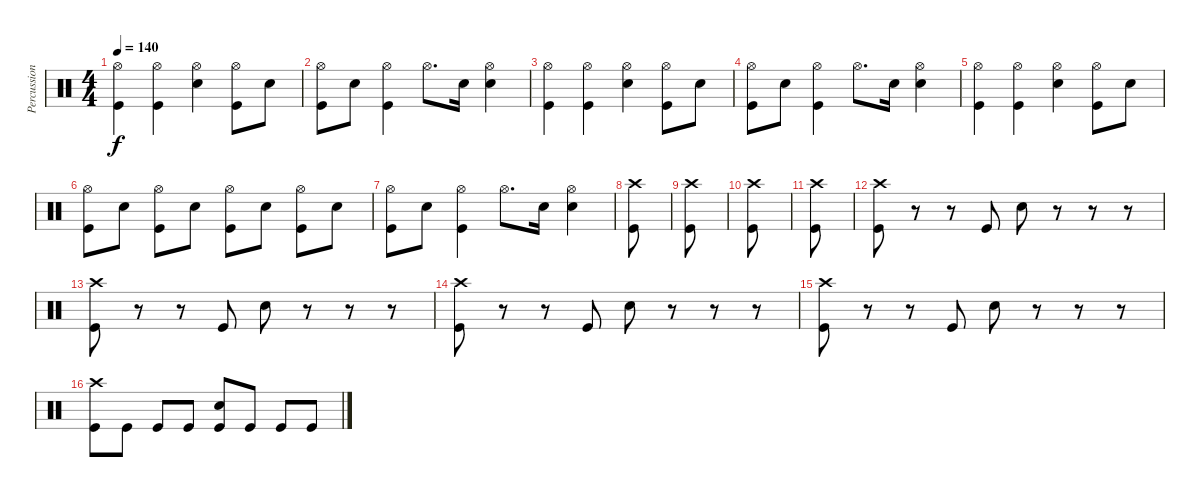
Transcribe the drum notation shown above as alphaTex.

\track ("Percussion" "Percussion") {instrument percussion}
\staff {score}
\articulation defaults
\ts (4 4)
\tempo 140
\clef neutral
\ks c
("Hi-Hat (open)" "Kick (hit)").4{dy f} ("Hi-Hat (open)" "Kick (hit)").4 ("Hi-Hat (open)" "Snare (hit) 2").4 ("Hi-Hat (open)" "Kick (hit)").8 "Snare (hit) 2".8 |
("Hi-Hat (open)" "Kick (hit)").8 "Snare (hit) 2".8 ("Hi-Hat (open)" "Kick (hit)").4 "Hi-Hat (open)".8{d} "Snare (hit) 2".16 ("Hi-Hat (open)" "Snare (hit) 2").4 |
("Hi-Hat (open)" "Kick (hit)").4 ("Hi-Hat (open)" "Kick (hit)").4 ("Hi-Hat (open)" "Snare (hit) 2").4 ("Hi-Hat (open)" "Kick (hit)").8 "Snare (hit) 2".8 |
("Hi-Hat (open)" "Kick (hit)").8 "Snare (hit) 2".8 ("Hi-Hat (open)" "Kick (hit)").4 "Hi-Hat (open)".8{d} "Snare (hit) 2".16 ("Hi-Hat (open)" "Snare (hit) 2").4 |
("Hi-Hat (open)" "Kick (hit)").4 ("Hi-Hat (open)" "Kick (hit)").4 ("Hi-Hat (open)" "Snare (hit) 2").4 ("Hi-Hat (open)" "Kick (hit)").8 "Snare (hit) 2".8 |
("Hi-Hat (open)" "Kick (hit)").8 "Snare (hit) 2".8 ("Hi-Hat (open)" "Kick (hit)").8 "Snare (hit) 2".8 ("Hi-Hat (open)" "Kick (hit)").8 "Snare (hit) 2".8 ("Hi-Hat (open)" "Kick (hit)").8 "Snare (hit) 2".8 |
("Hi-Hat (open)" "Kick (hit)").8 "Snare (hit) 2".8 ("Hi-Hat (open)" "Kick (hit)").4 "Hi-Hat (open)".8{d} "Snare (hit) 2".16 ("Hi-Hat (open)" "Snare (hit) 2").4 |
("Crash high (hit)" "Kick (hit)").8 |
("Crash high (hit)" "Kick (hit)").8 |
("Crash high (hit)" "Kick (hit)").8 |
("Crash high (hit)" "Kick (hit)").8 |
("Crash high (hit)" "Kick (hit)").8 r.8 r.8 "Kick (hit)".8 "Snare (hit) 2".8 r.8 r.8 r.8 |
("Crash high (hit)" "Kick (hit)").8 r.8 r.8 "Kick (hit)".8 "Snare (hit) 2".8 r.8 r.8 r.8 |
("Crash high (hit)" "Kick (hit)").8 r.8 r.8 "Kick (hit)".8 "Snare (hit) 2".8 r.8 r.8 r.8 |
("Crash high (hit)" "Kick (hit)").8 r.8 r.8 "Kick (hit)".8 "Snare (hit) 2".8 r.8 r.8 r.8 |
("Crash high (hit)" "Kick (hit)").8 "Kick (hit)".8 "Kick (hit)".8 "Kick (hit)".8 ("Snare (hit) 2" "Kick (hit)").8 "Kick (hit)".8 "Kick (hit)".8 "Kick (hit)".8
